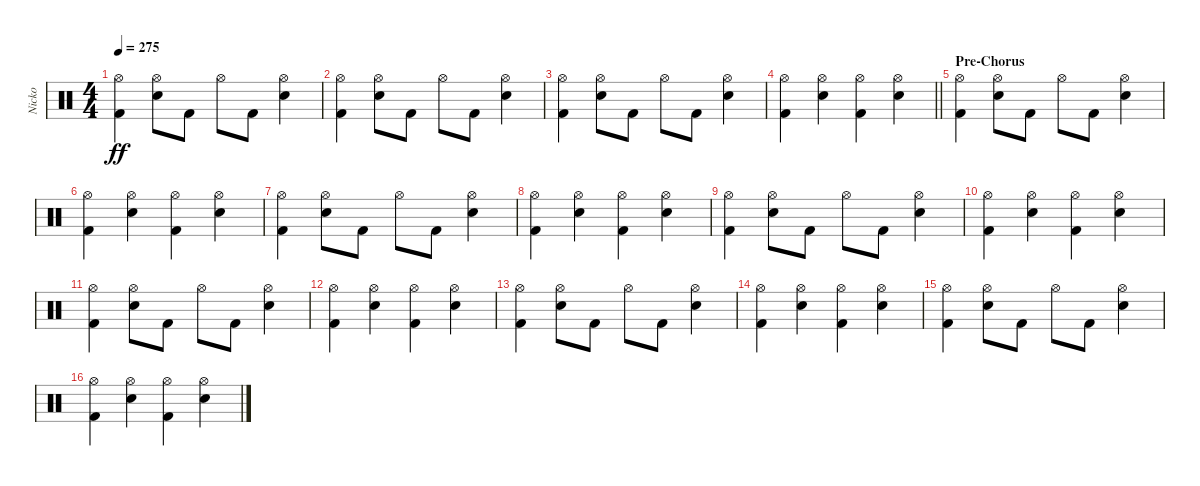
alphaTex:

\track ("Nicko" "Nicko") {instrument percussion}
\staff {score}
\articulation defaults
\ts (4 4)
\tempo 275
\clef neutral
\ks c
("Kick (hit) 2" "Hi-Hat (open)").4{dy ff} ("Snare (hit) 2" "Hi-Hat (open)").8 "Kick (hit) 2".8 "Hi-Hat (open)".8 "Kick (hit) 2".8 ("Snare (hit) 2" "Hi-Hat (open)").4 |
("Kick (hit) 2" "Hi-Hat (open)").4 ("Snare (hit) 2" "Hi-Hat (open)").8 "Kick (hit) 2".8 "Hi-Hat (open)".8 "Kick (hit) 2".8 ("Snare (hit) 2" "Hi-Hat (open)").4 |
("Kick (hit) 2" "Hi-Hat (open)").4 ("Snare (hit) 2" "Hi-Hat (open)").8 "Kick (hit) 2".8 "Hi-Hat (open)".8 "Kick (hit) 2".8 ("Snare (hit) 2" "Hi-Hat (open)").4 |
\barLineRight lightlight
("Kick (hit) 2" "Hi-Hat (open)").4 ("Snare (hit) 2" "Hi-Hat (open)").4 ("Kick (hit) 2" "Hi-Hat (open)").4 ("Snare (hit) 2" "Hi-Hat (open)").4 |
\section ("" "Pre-Chorus")
("Kick (hit) 2" "Hi-Hat (open)").4 ("Snare (hit) 2" "Hi-Hat (open)").8 "Kick (hit) 2".8 "Hi-Hat (open)".8 "Kick (hit) 2".8 ("Snare (hit) 2" "Hi-Hat (open)").4 |
("Kick (hit) 2" "Hi-Hat (open)").4 ("Snare (hit) 2" "Hi-Hat (open)").4 ("Kick (hit) 2" "Hi-Hat (open)").4 ("Snare (hit) 2" "Hi-Hat (open)").4 |
("Kick (hit) 2" "Hi-Hat (open)").4 ("Snare (hit) 2" "Hi-Hat (open)").8 "Kick (hit) 2".8 "Hi-Hat (open)".8 "Kick (hit) 2".8 ("Snare (hit) 2" "Hi-Hat (open)").4 |
("Kick (hit) 2" "Hi-Hat (open)").4 ("Snare (hit) 2" "Hi-Hat (open)").4 ("Kick (hit) 2" "Hi-Hat (open)").4 ("Snare (hit) 2" "Hi-Hat (open)").4 |
("Kick (hit) 2" "Hi-Hat (open)").4 ("Snare (hit) 2" "Hi-Hat (open)").8 "Kick (hit) 2".8 "Hi-Hat (open)".8 "Kick (hit) 2".8 ("Snare (hit) 2" "Hi-Hat (open)").4 |
("Kick (hit) 2" "Hi-Hat (open)").4 ("Snare (hit) 2" "Hi-Hat (open)").4 ("Kick (hit) 2" "Hi-Hat (open)").4 ("Snare (hit) 2" "Hi-Hat (open)").4 |
("Kick (hit) 2" "Hi-Hat (open)").4 ("Snare (hit) 2" "Hi-Hat (open)").8 "Kick (hit) 2".8 "Hi-Hat (open)".8 "Kick (hit) 2".8 ("Snare (hit) 2" "Hi-Hat (open)").4 |
("Kick (hit) 2" "Hi-Hat (open)").4 ("Snare (hit) 2" "Hi-Hat (open)").4 ("Kick (hit) 2" "Hi-Hat (open)").4 ("Snare (hit) 2" "Hi-Hat (open)").4 |
("Kick (hit) 2" "Hi-Hat (open)").4 ("Snare (hit) 2" "Hi-Hat (open)").8 "Kick (hit) 2".8 "Hi-Hat (open)".8 "Kick (hit) 2".8 ("Snare (hit) 2" "Hi-Hat (open)").4 |
("Kick (hit) 2" "Hi-Hat (open)").4 ("Snare (hit) 2" "Hi-Hat (open)").4 ("Kick (hit) 2" "Hi-Hat (open)").4 ("Snare (hit) 2" "Hi-Hat (open)").4 |
("Kick (hit) 2" "Hi-Hat (open)").4 ("Snare (hit) 2" "Hi-Hat (open)").8 "Kick (hit) 2".8 "Hi-Hat (open)".8 "Kick (hit) 2".8 ("Snare (hit) 2" "Hi-Hat (open)").4 |
("Kick (hit) 2" "Hi-Hat (open)").4 ("Snare (hit) 2" "Hi-Hat (open)").4 ("Kick (hit) 2" "Hi-Hat (open)").4 ("Snare (hit) 2" "Hi-Hat (open)").4
